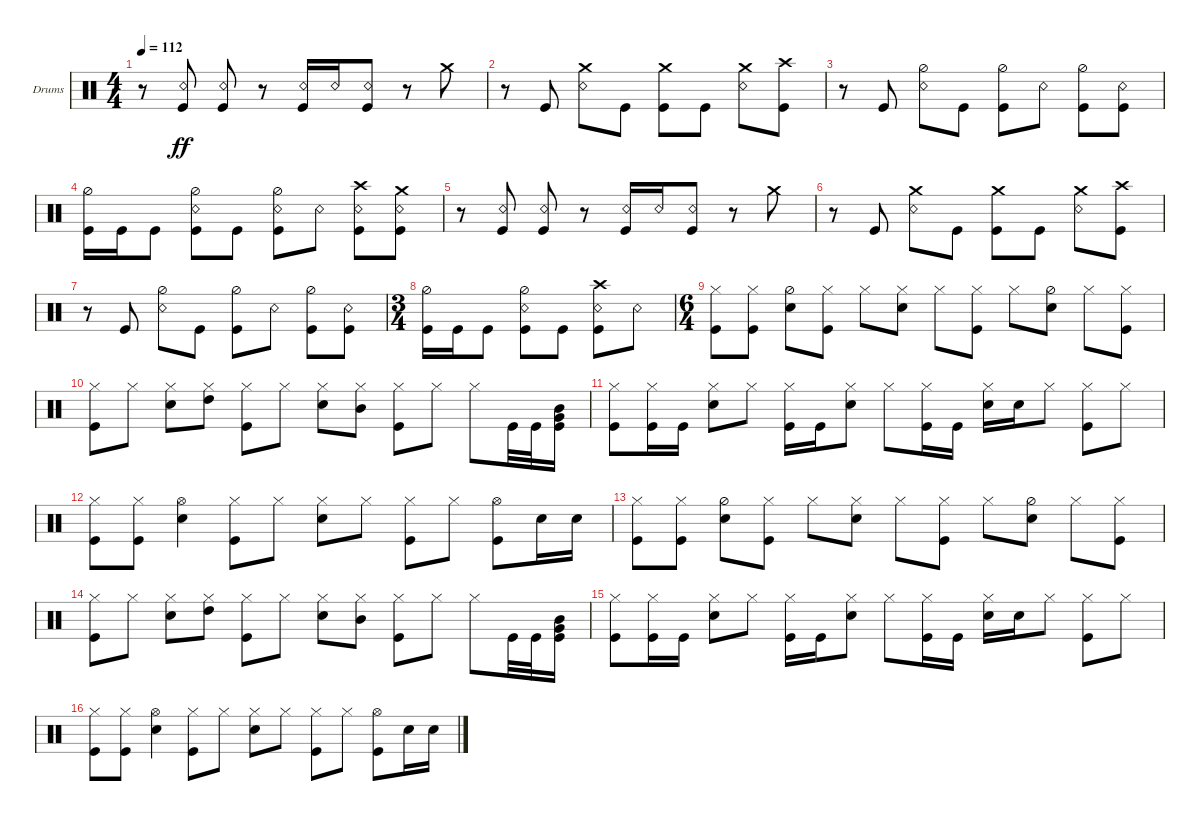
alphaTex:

\defaultSystemsLayout 4
\bracketExtendMode groupsimilarinstruments
\firstSystemTrackNameOrientation horizontal
\otherSystemsTrackNameOrientation horizontal
\track ("Drumkit" "Drums") {instrument percussion}
\staff {score}
\articulation defaults
\ts (4 4)
\tempo 112
\clef neutral
\scale
0.333333
\ks c
r.8{dy ff} ("Snare (rim shot)" "Kick (hit)").8 ("Snare (rim shot)" "Kick (hit)").8 r.8 ("Snare (rim shot)" "Kick (hit)").16 "Snare (rim shot)".16 ("Snare (rim shot)" "Kick (hit)").8 r.8 "Crash medium (hit)".8 |
\scale
0.333333 r.8 "Kick (hit)".8 ("Snare (rim shot)" "Crash medium (hit)").8 "Kick (hit)".8 ("Kick (hit)" "Crash medium (hit)").8 "Kick (hit)".8 ("Snare (rim shot)" "Crash medium (hit)").8 ("Kick (hit)" "Crash high (hit)").8 |
r.8 "Kick (hit)".8 ("Snare (rim shot)" "Hi-Hat (half)").8 "Kick (hit)".8 ("Kick (hit)" "Hi-Hat (half)").8 "Snare (rim shot)".8 ("Kick (hit)" "Hi-Hat (half)").8 ("Snare (rim shot)" "Kick (hit)").8 |
("Kick (hit)" "Hi-Hat (half)").16 "Kick (hit)".16 "Kick (hit)".8 ("Kick (hit)" "Hi-Hat (half)" "Snare (rim shot)").8 "Kick (hit)".8 ("Kick (hit)" "Hi-Hat (half)" "Snare (rim shot)").8 "Snare (rim shot)".8 ("Kick (hit)" "Snare (rim shot)" "Crash high (hit)").8 ("Kick (hit)" "Snare (rim shot)" "Crash medium (hit)").8 |
r.8 ("Snare (rim shot)" "Kick (hit)").8 ("Snare (rim shot)" "Kick (hit)").8 r.8 ("Snare (rim shot)" "Kick (hit)").16 "Snare (rim shot)".16 ("Snare (rim shot)" "Kick (hit)").8 r.8 "Crash medium (hit)".8 |
r.8 "Kick (hit)".8 ("Snare (rim shot)" "Crash medium (hit)").8 "Kick (hit)".8 ("Kick (hit)" "Crash medium (hit)").8 "Kick (hit)".8 ("Snare (rim shot)" "Crash medium (hit)").8 ("Kick (hit)" "Crash high (hit)").8 |
r.8 "Kick (hit)".8 ("Snare (rim shot)" "Hi-Hat (half)").8 "Kick (hit)".8 ("Kick (hit)" "Hi-Hat (half)").8 "Snare (rim shot)".8 ("Kick (hit)" "Hi-Hat (half)").8 ("Snare (rim shot)" "Kick (hit)").8 |
\ts (3 4)
("Kick (hit)" "Hi-Hat (half)").16 "Kick (hit)".16 "Kick (hit)".8 ("Kick (hit)" "Hi-Hat (half)" "Snare (rim shot)").8 "Kick (hit)".8 ("Kick (hit)" "Snare (rim shot)" "Crash high (hit)").8 "Snare (rim shot)".8 |
\ts (6 4)
("Hi-Hat (closed)" "Kick (hit)").8 ("Hi-Hat (closed)" "Kick (hit)").8 ("Hi-Hat (half)" "Snare (hit) 2").8 ("Hi-Hat (closed)" "Kick (hit)").8 "Hi-Hat (closed)".8 ("Hi-Hat (closed)" "Snare (hit) 2").8 "Hi-Hat (closed)".8 ("Hi-Hat (closed)" "Kick (hit)").8 "Hi-Hat (closed)".8 ("Hi-Hat (half)" "Snare (hit) 2").8 "Hi-Hat (closed)".8 ("Hi-Hat (closed)" "Kick (hit)").8 |
("Kick (hit)" "Hi-Hat (closed)").8 "Hi-Hat (closed)".8 ("Hi-Hat (closed)" "Snare (hit) 2").8 ("Hi-Hat (closed)" "High Tom (hit)").8 ("Hi-Hat (closed)" "Kick (hit)").8 "Hi-Hat (closed)".8 ("Hi-Hat (closed)" "Snare (hit) 2").8 ("Hi-Hat (closed)" "Mid Tom (hit)").8 ("Hi-Hat (closed)" "Kick (hit)").8 "Hi-Hat (closed)".8 "Hi-Hat (closed)".8 "Kick (hit)".32 "Kick (hit)".32 ("Mid Tom (hit)" "Very Low Tom (hit)" "Kick (hit)").16 |
("Kick (hit)" "Hi-Hat (closed)").8 ("Kick (hit)" "Hi-Hat (closed)").16 "Kick (hit)".16 ("Snare (hit) 2" "Hi-Hat (closed)").8 "Hi-Hat (closed)".8 ("Hi-Hat (closed)" "Kick (hit)").16 "Kick (hit)".16 ("Hi-Hat (closed)" "Snare (hit) 2").8 "Hi-Hat (closed)".8 ("Hi-Hat (closed)" "Kick (hit)").16 "Kick (hit)".16 ("Hi-Hat (closed)" "Snare (hit) 2").16 "Snare (hit) 2".16 "Hi-Hat (closed)".8 ("Hi-Hat (closed)" "Kick (hit)").8 "Hi-Hat (closed)".8 |
("Hi-Hat (closed)" "Kick (hit)").8 ("Hi-Hat (closed)" "Kick (hit)").8 ("Hi-Hat (open)" "Snare (hit) 2").4 ("Hi-Hat (closed)" "Kick (hit)").8 "Hi-Hat (closed)".8 ("Hi-Hat (closed)" "Snare (hit) 2").8 "Hi-Hat (closed)".8 ("Hi-Hat (closed)" "Kick (hit)").8 "Hi-Hat (closed)".8 ("Kick (hit)" "Hi-Hat (open)").8 "Snare (hit) 2".16 "Snare (hit) 2".16 |
("Hi-Hat (closed)" "Kick (hit)").8 ("Hi-Hat (closed)" "Kick (hit)").8 ("Hi-Hat (half)" "Snare (hit) 2").8 ("Hi-Hat (closed)" "Kick (hit)").8 "Hi-Hat (closed)".8 ("Hi-Hat (closed)" "Snare (hit) 2").8 "Hi-Hat (closed)".8 ("Hi-Hat (closed)" "Kick (hit)").8 "Hi-Hat (closed)".8 ("Hi-Hat (half)" "Snare (hit) 2").8 "Hi-Hat (closed)".8 ("Hi-Hat (closed)" "Kick (hit)").8 |
("Kick (hit)" "Hi-Hat (closed)").8 "Hi-Hat (closed)".8 ("Hi-Hat (closed)" "Snare (hit) 2").8 ("Hi-Hat (closed)" "High Tom (hit)").8 ("Hi-Hat (closed)" "Kick (hit)").8 "Hi-Hat (closed)".8 ("Hi-Hat (closed)" "Snare (hit) 2").8 ("Hi-Hat (closed)" "Mid Tom (hit)").8 ("Hi-Hat (closed)" "Kick (hit)").8 "Hi-Hat (closed)".8 "Hi-Hat (closed)".8 "Kick (hit)".32 "Kick (hit)".32 ("Mid Tom (hit)" "Very Low Tom (hit)" "Kick (hit)").16 |
("Kick (hit)" "Hi-Hat (closed)").8 ("Kick (hit)" "Hi-Hat (closed)").16 "Kick (hit)".16 ("Snare (hit) 2" "Hi-Hat (closed)").8 "Hi-Hat (closed)".8 ("Hi-Hat (closed)" "Kick (hit)").16 "Kick (hit)".16 ("Hi-Hat (closed)" "Snare (hit) 2").8 "Hi-Hat (closed)".8 ("Hi-Hat (closed)" "Kick (hit)").16 "Kick (hit)".16 ("Hi-Hat (closed)" "Snare (hit) 2").16 "Snare (hit) 2".16 "Hi-Hat (closed)".8 ("Hi-Hat (closed)" "Kick (hit)").8 "Hi-Hat (closed)".8 |
("Hi-Hat (closed)" "Kick (hit)").8 ("Hi-Hat (closed)" "Kick (hit)").8 ("Hi-Hat (open)" "Snare (hit) 2").4 ("Hi-Hat (closed)" "Kick (hit)").8 "Hi-Hat (closed)".8 ("Hi-Hat (closed)" "Snare (hit) 2").8 "Hi-Hat (closed)".8 ("Hi-Hat (closed)" "Kick (hit)").8 "Hi-Hat (closed)".8 ("Kick (hit)" "Hi-Hat (open)").8 "Snare (hit) 2".16 "Snare (hit) 2".16
